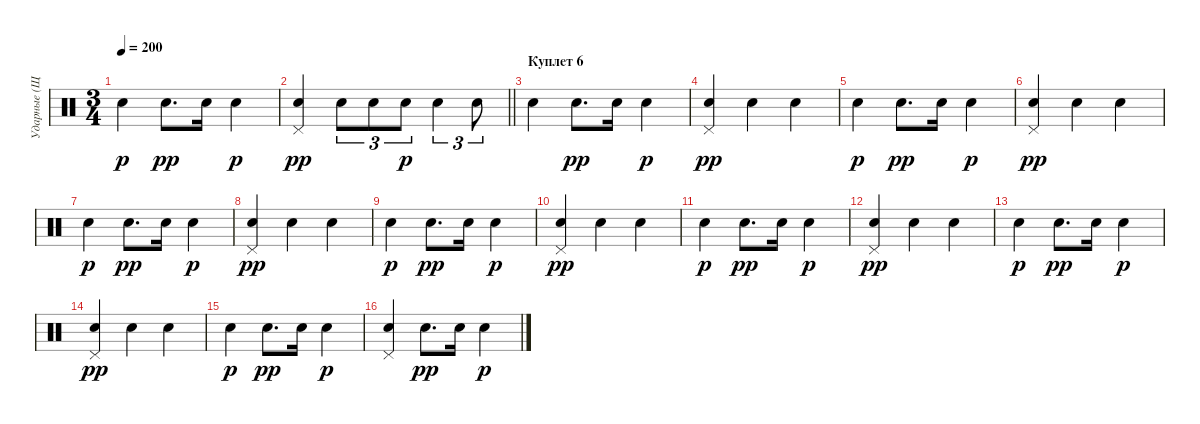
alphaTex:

\track ("Ударные (Щетками)" "Ударные (Щ") {instrument percussion}
\staff {score}
\articulation defaults
\ts (3 4)
\tempo 200
\clef neutral
\ks c "Snare (hit) 2".4{dy p} "Snare (hit) 2".8{d dy pp} "Snare (hit) 2".16 "Snare (hit) 2".4{dy p}
|
\barLineRight lightlight
("Pedal Hi-Hat (hit)" "Snare (hit) 2").4{dy pp} "Snare (hit) 2".8{tu (3 2)} "Snare (hit) 2".8{tu (3 2)} "Snare (hit) 2".8{tu (3 2) dy p} "Snare (hit) 2".4{tu (3 2)} "Snare (hit) 2".8{tu (3 2)} |
\section ("" "Куплет 6")
"Snare (hit) 2".4 "Snare (hit) 2".8{d dy pp} "Snare (hit) 2".16 "Snare (hit) 2".4{dy p} |
("Pedal Hi-Hat (hit)" "Snare (hit) 2").4{dy pp} "Snare (hit) 2".4 "Snare (hit) 2".4 |
"Snare (hit) 2".4{dy p} "Snare (hit) 2".8{d dy pp} "Snare (hit) 2".16 "Snare (hit) 2".4{dy p} |
("Pedal Hi-Hat (hit)" "Snare (hit) 2").4{dy pp} "Snare (hit) 2".4 "Snare (hit) 2".4 |
"Snare (hit) 2".4{dy p} "Snare (hit) 2".8{d dy pp} "Snare (hit) 2".16 "Snare (hit) 2".4{dy p} |
("Pedal Hi-Hat (hit)" "Snare (hit) 2").4{dy pp} "Snare (hit) 2".4 "Snare (hit) 2".4 |
"Snare (hit) 2".4{dy p} "Snare (hit) 2".8{d dy pp} "Snare (hit) 2".16 "Snare (hit) 2".4{dy p} |
("Pedal Hi-Hat (hit)" "Snare (hit) 2").4{dy pp} "Snare (hit) 2".4 "Snare (hit) 2".4 |
"Snare (hit) 2".4{dy p} "Snare (hit) 2".8{d dy pp} "Snare (hit) 2".16 "Snare (hit) 2".4{dy p} |
("Pedal Hi-Hat (hit)" "Snare (hit) 2").4{dy pp} "Snare (hit) 2".4 "Snare (hit) 2".4 |
"Snare (hit) 2".4{dy p} "Snare (hit) 2".8{d dy pp} "Snare (hit) 2".16 "Snare (hit) 2".4{dy p} |
("Pedal Hi-Hat (hit)" "Snare (hit) 2").4{dy pp} "Snare (hit) 2".4 "Snare (hit) 2".4 |
"Snare (hit) 2".4{dy p} "Snare (hit) 2".8{d dy pp} "Snare (hit) 2".16 "Snare (hit) 2".4{dy p} |
("Pedal Hi-Hat (hit)" "Snare (hit) 2").4 "Snare (hit) 2".8{d dy pp} "Snare (hit) 2".16 "Snare (hit) 2".4{dy p}
